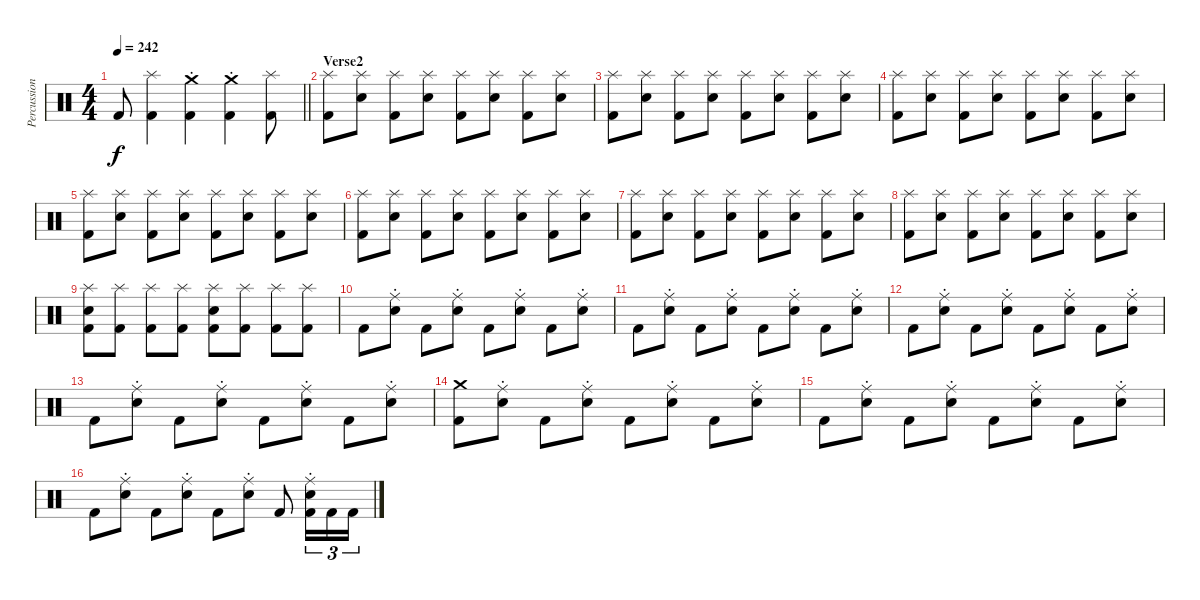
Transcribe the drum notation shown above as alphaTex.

\track ("Percussion" "Percussion") {instrument percussion}
\staff {score}
\articulation defaults
\ts (4 4)
\tempo 242
\clef neutral
\barLineRight lightlight
\ks c "Kick (hit) 2".8{dy f}
("Splash (hit)" "Kick (hit) 2").4 ("Crash medium (hit)"{st} "Kick (hit) 2").4 ("Crash medium (hit)"{st} "Kick (hit) 2").4 ("Splash (hit)" "Kick (hit) 2").8 |
\section ("" "Verse2")
("Splash (hit)" "Kick (hit) 2").8 ("Splash (hit)" "Snare (hit) 2").8 ("Splash (hit)" "Kick (hit) 2").8 ("Splash (hit)" "Snare (hit) 2").8 ("Splash (hit)" "Kick (hit) 2").8 ("Splash (hit)" "Snare (hit) 2").8 ("Splash (hit)" "Kick (hit) 2").8 ("Splash (hit)" "Snare (hit) 2").8 |
("Splash (hit)" "Kick (hit) 2").8 ("Splash (hit)" "Snare (hit) 2").8 ("Splash (hit)" "Kick (hit) 2").8 ("Splash (hit)" "Snare (hit) 2").8 ("Splash (hit)" "Kick (hit) 2").8 ("Splash (hit)" "Snare (hit) 2").8 ("Splash (hit)" "Kick (hit) 2").8 ("Splash (hit)" "Snare (hit) 2").8 |
("Splash (hit)" "Kick (hit) 2").8 ("Splash (hit)" "Snare (hit) 2").8 ("Splash (hit)" "Kick (hit) 2").8 ("Splash (hit)" "Snare (hit) 2").8 ("Splash (hit)" "Kick (hit) 2").8 ("Splash (hit)" "Snare (hit) 2").8 ("Splash (hit)" "Kick (hit) 2").8 ("Splash (hit)" "Snare (hit) 2").8 |
("Splash (hit)" "Kick (hit) 2").8 ("Splash (hit)" "Snare (hit) 2").8 ("Splash (hit)" "Kick (hit) 2").8 ("Splash (hit)" "Snare (hit) 2").8 ("Splash (hit)" "Kick (hit) 2").8 ("Splash (hit)" "Snare (hit) 2").8 ("Splash (hit)" "Kick (hit) 2").8 ("Splash (hit)" "Snare (hit) 2").8 |
("Splash (hit)" "Kick (hit) 2").8 ("Splash (hit)" "Snare (hit) 2").8 ("Splash (hit)" "Kick (hit) 2").8 ("Splash (hit)" "Snare (hit) 2").8 ("Splash (hit)" "Kick (hit) 2").8 ("Splash (hit)" "Snare (hit) 2").8 ("Splash (hit)" "Kick (hit) 2").8 ("Splash (hit)" "Snare (hit) 2").8 |
("Splash (hit)" "Kick (hit) 2").8 ("Splash (hit)" "Snare (hit) 2").8 ("Splash (hit)" "Kick (hit) 2").8 ("Splash (hit)" "Snare (hit) 2").8 ("Splash (hit)" "Kick (hit) 2").8 ("Splash (hit)" "Snare (hit) 2").8 ("Splash (hit)" "Kick (hit) 2").8 ("Splash (hit)" "Snare (hit) 2").8 |
("Splash (hit)" "Kick (hit) 2").8 ("Splash (hit)" "Snare (hit) 2").8 ("Splash (hit)" "Kick (hit) 2").8 ("Splash (hit)" "Snare (hit) 2").8 ("Splash (hit)" "Kick (hit) 2").8 ("Splash (hit)" "Snare (hit) 2").8 ("Splash (hit)" "Kick (hit) 2").8 ("Splash (hit)" "Snare (hit) 2").8 |
("Splash (hit)" "Snare (hit) 2" "Kick (hit) 2").8 ("Splash (hit)" "Kick (hit) 2").8 ("Splash (hit)" "Kick (hit) 2").8 ("Splash (hit)" "Kick (hit) 2").8 ("Splash (hit)" "Snare (hit) 2" "Kick (hit) 2").8 ("Splash (hit)" "Kick (hit) 2").8 ("Splash (hit)" "Kick (hit) 2").8 ("Splash (hit)" "Kick (hit) 2").8 |
"Kick (hit) 2".8 ("Ride (middle)"{st} "Snare (hit) 2").8 "Kick (hit) 2".8 ("Ride (middle)"{st} "Snare (hit) 2").8 "Kick (hit) 2".8 ("Ride (middle)"{st} "Snare (hit) 2").8 "Kick (hit) 2".8 ("Ride (middle)"{st} "Snare (hit) 2").8 |
"Kick (hit) 2".8 ("Ride (middle)"{st} "Snare (hit) 2").8 "Kick (hit) 2".8 ("Ride (middle)"{st} "Snare (hit) 2").8 "Kick (hit) 2".8 ("Ride (middle)"{st} "Snare (hit) 2").8 "Kick (hit) 2".8 ("Ride (middle)"{st} "Snare (hit) 2").8 |
"Kick (hit) 2".8 ("Ride (middle)"{st} "Snare (hit) 2").8 "Kick (hit) 2".8 ("Ride (middle)"{st} "Snare (hit) 2").8 "Kick (hit) 2".8 ("Ride (middle)"{st} "Snare (hit) 2").8 "Kick (hit) 2".8 ("Ride (middle)"{st} "Snare (hit) 2").8 |
"Kick (hit) 2".8 ("Ride (middle)"{st} "Snare (hit) 2").8 "Kick (hit) 2".8 ("Ride (middle)"{st} "Snare (hit) 2").8 "Kick (hit) 2".8 ("Ride (middle)"{st} "Snare (hit) 2").8 "Kick (hit) 2".8 ("Ride (middle)"{st} "Snare (hit) 2").8 |
("Crash medium (hit)" "Kick (hit) 2").8 ("Ride (middle)"{st} "Snare (hit) 2").8 "Kick (hit) 2".8 ("Ride (middle)"{st} "Snare (hit) 2").8 "Kick (hit) 2".8 ("Ride (middle)"{st} "Snare (hit) 2").8 "Kick (hit) 2".8 ("Ride (middle)"{st} "Snare (hit) 2").8 |
"Kick (hit) 2".8 ("Ride (middle)"{st} "Snare (hit) 2").8 "Kick (hit) 2".8 ("Ride (middle)"{st} "Snare (hit) 2").8 "Kick (hit) 2".8 ("Ride (middle)"{st} "Snare (hit) 2").8 "Kick (hit) 2".8 ("Ride (middle)"{st} "Snare (hit) 2").8 |
"Kick (hit) 2".8 ("Ride (middle)"{st} "Snare (hit) 2").8 "Kick (hit) 2".8 ("Ride (middle)"{st} "Snare (hit) 2").8 "Kick (hit) 2".8 ("Ride (middle)"{st} "Snare (hit) 2").8 "Kick (hit) 2".8 ("Ride (middle)"{st} "Snare (hit) 2" "Kick (hit) 2").16{tu (3 2)} "Kick (hit) 2".16{tu (3 2)} "Kick (hit) 2".16{tu (3 2)}
